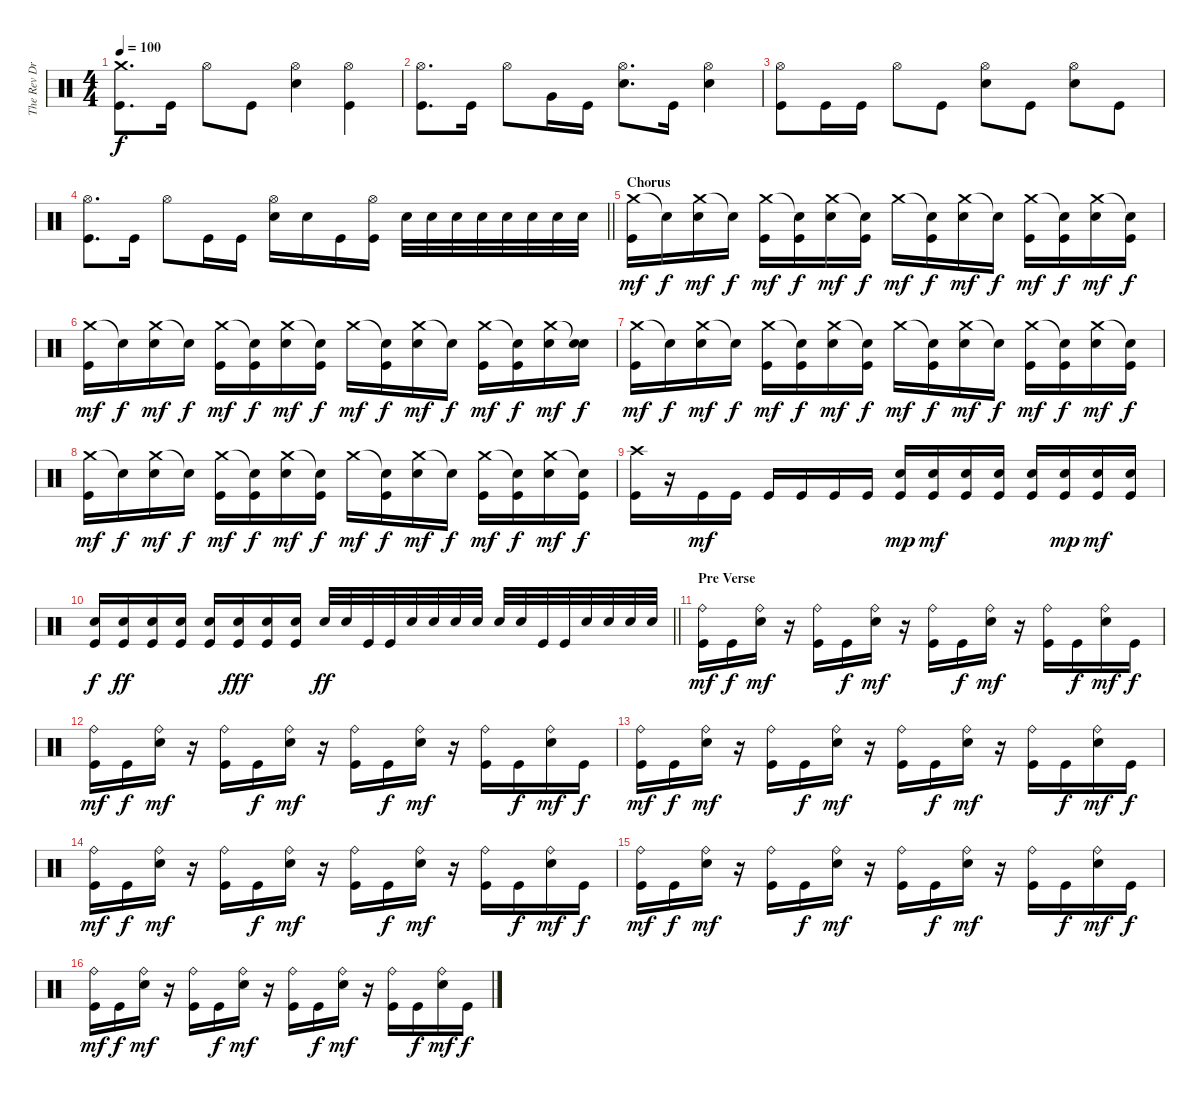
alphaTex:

\track ("The Rev Drums" "The Rev Dr") {instrument percussion}
\staff {score}
\articulation defaults
\ts (4 4)
\tempo 100
\clef neutral
\ks c
("Crash medium (hit)" "Kick (hit)").8{d dy f} "Kick (hit)".16 "Hi-Hat (open)".8 "Kick (hit)".8 ("Hi-Hat (open)" "Electric Snare (hit)").4 ("Hi-Hat (open)" "Kick (hit)").4 |
("Hi-Hat (open)" "Kick (hit)").8{d} "Kick (hit)".16 "Hi-Hat (open)".8 "Very Low Tom (hit)".16 "Kick (hit)".16 ("Hi-Hat (open)" "Electric Snare (hit)").8{d} "Kick (hit)".16 ("Hi-Hat (open)" "Electric Snare (hit)").4 |
("Hi-Hat (open)" "Kick (hit)").8 "Kick (hit)".16 "Kick (hit)".16 "Hi-Hat (open)".8 "Kick (hit)".8 ("Hi-Hat (open)" "Electric Snare (hit)").8 "Kick (hit)".8 ("Hi-Hat (open)" "Electric Snare (hit)").8 "Kick (hit)".8 |
\barLineRight lightlight
("Hi-Hat (open)" "Kick (hit)").8{d} "Kick (hit)".16 "Hi-Hat (open)".8 "Kick (hit)".16 "Kick (hit)".16 ("Hi-Hat (open)" "Electric Snare (hit)").16 "Electric Snare (hit)".16 "Kick (hit)".16 ("Hi-Hat (open)" "Kick (hit)").16 "Electric Snare (hit)".32 "Electric Snare (hit)".32 "Electric Snare (hit)".32 "Electric Snare (hit)".32 "Electric Snare (hit)".32 "Electric Snare (hit)".32 "Electric Snare (hit)".32 "Electric Snare (hit)".32 |
\section ("" "Chorus")
("Crash medium (hit)" "Kick (hit)").16{dy mf} "Snare (hit)"{t}.16{dy f} ("Crash medium (hit)" "Electric Snare (hit)").16{dy mf} "Snare (hit)"{t}.16{dy f} ("Crash medium (hit)" "Kick (hit)").16{dy mf} ("Snare (hit)"{t} "Kick (hit)").16{dy f} ("Crash medium (hit)" "Electric Snare (hit)").16{dy mf} ("Snare (hit)"{t} "Kick (hit)").16{dy f} "Crash medium (hit)".16{dy mf} ("Snare (hit)"{t} "Kick (hit)").16{dy f} ("Crash medium (hit)" "Electric Snare (hit)").16{dy mf} "Snare (hit)"{t}.16{dy f} ("Crash medium (hit)" "Kick (hit)").16{dy mf} ("Snare (hit)"{t} "Kick (hit)").16{dy f} ("Crash medium (hit)" "Electric Snare (hit)").16{dy mf} ("Snare (hit)"{t} "Kick (hit)").16{dy f} |
("Crash medium (hit)" "Kick (hit)").16{dy mf} "Snare (hit)"{t}.16{dy f} ("Crash medium (hit)" "Electric Snare (hit)").16{dy mf} "Snare (hit)"{t}.16{dy f} ("Crash medium (hit)" "Kick (hit)").16{dy mf} ("Snare (hit)"{t} "Kick (hit)").16{dy f} ("Crash medium (hit)" "Electric Snare (hit)").16{dy mf} ("Snare (hit)"{t} "Kick (hit)").16{dy f} "Crash medium (hit)".16{dy mf} ("Snare (hit)"{t} "Kick (hit)").16{dy f} ("Crash medium (hit)" "Electric Snare (hit)").16{dy mf} "Snare (hit)"{t}.16{dy f} ("Crash medium (hit)" "Kick (hit)").16{dy mf} ("Snare (hit)"{t} "Kick (hit)").16{dy f} ("Crash medium (hit)" "Electric Snare (hit)").16{dy mf} ("Snare (hit)"{t} "Electric Snare (hit)").16{dy f} |
("Crash medium (hit)" "Kick (hit)").16{dy mf} "Snare (hit)"{t}.16{dy f} ("Crash medium (hit)" "Electric Snare (hit)").16{dy mf} "Snare (hit)"{t}.16{dy f} ("Crash medium (hit)" "Kick (hit)").16{dy mf} ("Snare (hit)"{t} "Kick (hit)").16{dy f} ("Crash medium (hit)" "Electric Snare (hit)").16{dy mf} ("Snare (hit)"{t} "Kick (hit)").16{dy f} "Crash medium (hit)".16{dy mf} ("Snare (hit)"{t} "Kick (hit)").16{dy f} ("Crash medium (hit)" "Electric Snare (hit)").16{dy mf} "Snare (hit)"{t}.16{dy f} ("Crash medium (hit)" "Kick (hit)").16{dy mf} ("Snare (hit)"{t} "Kick (hit)").16{dy f} ("Crash medium (hit)" "Electric Snare (hit)").16{dy mf} ("Snare (hit)"{t} "Kick (hit)").16{dy f} |
("Crash medium (hit)" "Kick (hit)").16{dy mf} "Snare (hit)"{t}.16{dy f} ("Crash medium (hit)" "Electric Snare (hit)").16{dy mf} "Snare (hit)"{t}.16{dy f} ("Crash medium (hit)" "Kick (hit)").16{dy mf} ("Snare (hit)"{t} "Kick (hit)").16{dy f} ("Crash medium (hit)" "Electric Snare (hit)").16{dy mf} ("Snare (hit)"{t} "Kick (hit)").16{dy f} "Crash medium (hit)".16{dy mf} ("Snare (hit)"{t} "Kick (hit)").16{dy f} ("Crash medium (hit)" "Electric Snare (hit)").16{dy mf} "Snare (hit)"{t}.16{dy f} ("Crash medium (hit)" "Kick (hit)").16{dy mf} ("Snare (hit)"{t} "Kick (hit)").16{dy f} ("Crash medium (hit)" "Electric Snare (hit)").16{dy mf} ("Snare (hit)"{t} "Kick (hit)").16{dy f} |
("Crash high (hit)" "Kick (hit)").16 r.16 "Kick (hit)".16{dy mf} "Kick (hit)".16 "Kick (hit)".16 "Kick (hit)".16 "Kick (hit)".16 "Kick (hit)".16 ("Electric Snare (hit)" "Kick (hit)").16{dy mp} ("Electric Snare (hit)" "Kick (hit)").16{dy mf} ("Electric Snare (hit)" "Kick (hit)").16 ("Electric Snare (hit)" "Kick (hit)").16 ("Electric Snare (hit)" "Kick (hit)").16 ("Electric Snare (hit)" "Kick (hit)").16{dy mp} ("Electric Snare (hit)" "Kick (hit)").16{dy mf} ("Electric Snare (hit)" "Kick (hit)").16 |
\barLineRight lightlight
("Electric Snare (hit)" "Kick (hit)").16{dy f} ("Electric Snare (hit)" "Kick (hit)").16{dy ff} ("Electric Snare (hit)" "Kick (hit)").16 ("Electric Snare (hit)" "Kick (hit)").16 ("Electric Snare (hit)" "Kick (hit)").16 ("Electric Snare (hit)" "Kick (hit)").16{dy fff} ("Electric Snare (hit)" "Kick (hit)").16 ("Electric Snare (hit)" "Kick (hit)").16 "Electric Snare (hit)".32{dy ff} "Electric Snare (hit)".32 "Kick (hit)".32 "Kick (hit)".32 "Electric Snare (hit)".32 "Electric Snare (hit)".32 "Electric Snare (hit)".32 "Electric Snare (hit)".32 "Electric Snare (hit)".32 "Electric Snare (hit)".32 "Kick (hit)".32 "Kick (hit)".32 "Electric Snare (hit)".32 "Electric Snare (hit)".32 "Electric Snare (hit)".32 "Electric Snare (hit)".32 |
\section ("" "Pre Verse")
("Ride (bell)" "Kick (hit)").16{dy mf} "Kick (hit)".16{dy f} ("Ride (bell)" "Electric Snare (hit)").16{dy mf} r.16 ("Ride (bell)" "Kick (hit)").16 "Kick (hit)".16{dy f} ("Ride (bell)" "Electric Snare (hit)").16{dy mf} r.16 ("Ride (bell)" "Kick (hit)").16 "Kick (hit)".16{dy f} ("Ride (bell)" "Electric Snare (hit)").16{dy mf} r.16 ("Ride (bell)" "Kick (hit)").16 "Kick (hit)".16{dy f} ("Ride (bell)" "Electric Snare (hit)").16{dy mf} "Kick (hit)".16{dy f} |
("Ride (bell)" "Kick (hit)").16{dy mf} "Kick (hit)".16{dy f} ("Ride (bell)" "Electric Snare (hit)").16{dy mf} r.16 ("Ride (bell)" "Kick (hit)").16 "Kick (hit)".16{dy f} ("Ride (bell)" "Electric Snare (hit)").16{dy mf} r.16 ("Ride (bell)" "Kick (hit)").16 "Kick (hit)".16{dy f} ("Ride (bell)" "Electric Snare (hit)").16{dy mf} r.16 ("Ride (bell)" "Kick (hit)").16 "Kick (hit)".16{dy f} ("Ride (bell)" "Electric Snare (hit)").16{dy mf} "Kick (hit)".16{dy f} |
("Ride (bell)" "Kick (hit)").16{dy mf} "Kick (hit)".16{dy f} ("Ride (bell)" "Electric Snare (hit)").16{dy mf} r.16 ("Ride (bell)" "Kick (hit)").16 "Kick (hit)".16{dy f} ("Ride (bell)" "Electric Snare (hit)").16{dy mf} r.16 ("Ride (bell)" "Kick (hit)").16 "Kick (hit)".16{dy f} ("Ride (bell)" "Electric Snare (hit)").16{dy mf} r.16 ("Ride (bell)" "Kick (hit)").16 "Kick (hit)".16{dy f} ("Ride (bell)" "Electric Snare (hit)").16{dy mf} "Kick (hit)".16{dy f} |
("Ride (bell)" "Kick (hit)").16{dy mf} "Kick (hit)".16{dy f} ("Ride (bell)" "Electric Snare (hit)").16{dy mf} r.16 ("Ride (bell)" "Kick (hit)").16 "Kick (hit)".16{dy f} ("Ride (bell)" "Electric Snare (hit)").16{dy mf} r.16 ("Ride (bell)" "Kick (hit)").16 "Kick (hit)".16{dy f} ("Ride (bell)" "Electric Snare (hit)").16{dy mf} r.16 ("Ride (bell)" "Kick (hit)").16 "Kick (hit)".16{dy f} ("Ride (bell)" "Electric Snare (hit)").16{dy mf} "Kick (hit)".16{dy f} |
("Ride (bell)" "Kick (hit)").16{dy mf} "Kick (hit)".16{dy f} ("Ride (bell)" "Electric Snare (hit)").16{dy mf} r.16 ("Ride (bell)" "Kick (hit)").16 "Kick (hit)".16{dy f} ("Ride (bell)" "Electric Snare (hit)").16{dy mf} r.16 ("Ride (bell)" "Kick (hit)").16 "Kick (hit)".16{dy f} ("Ride (bell)" "Electric Snare (hit)").16{dy mf} r.16 ("Ride (bell)" "Kick (hit)").16 "Kick (hit)".16{dy f} ("Ride (bell)" "Electric Snare (hit)").16{dy mf} "Kick (hit)".16{dy f} |
("Ride (bell)" "Kick (hit)").16{dy mf} "Kick (hit)".16{dy f} ("Ride (bell)" "Electric Snare (hit)").16{dy mf} r.16 ("Ride (bell)" "Kick (hit)").16 "Kick (hit)".16{dy f} ("Ride (bell)" "Electric Snare (hit)").16{dy mf} r.16 ("Ride (bell)" "Kick (hit)").16 "Kick (hit)".16{dy f} ("Ride (bell)" "Electric Snare (hit)").16{dy mf} r.16 ("Ride (bell)" "Kick (hit)").16 "Kick (hit)".16{dy f} ("Ride (bell)" "Electric Snare (hit)").16{dy mf} "Kick (hit)".16{dy f}
